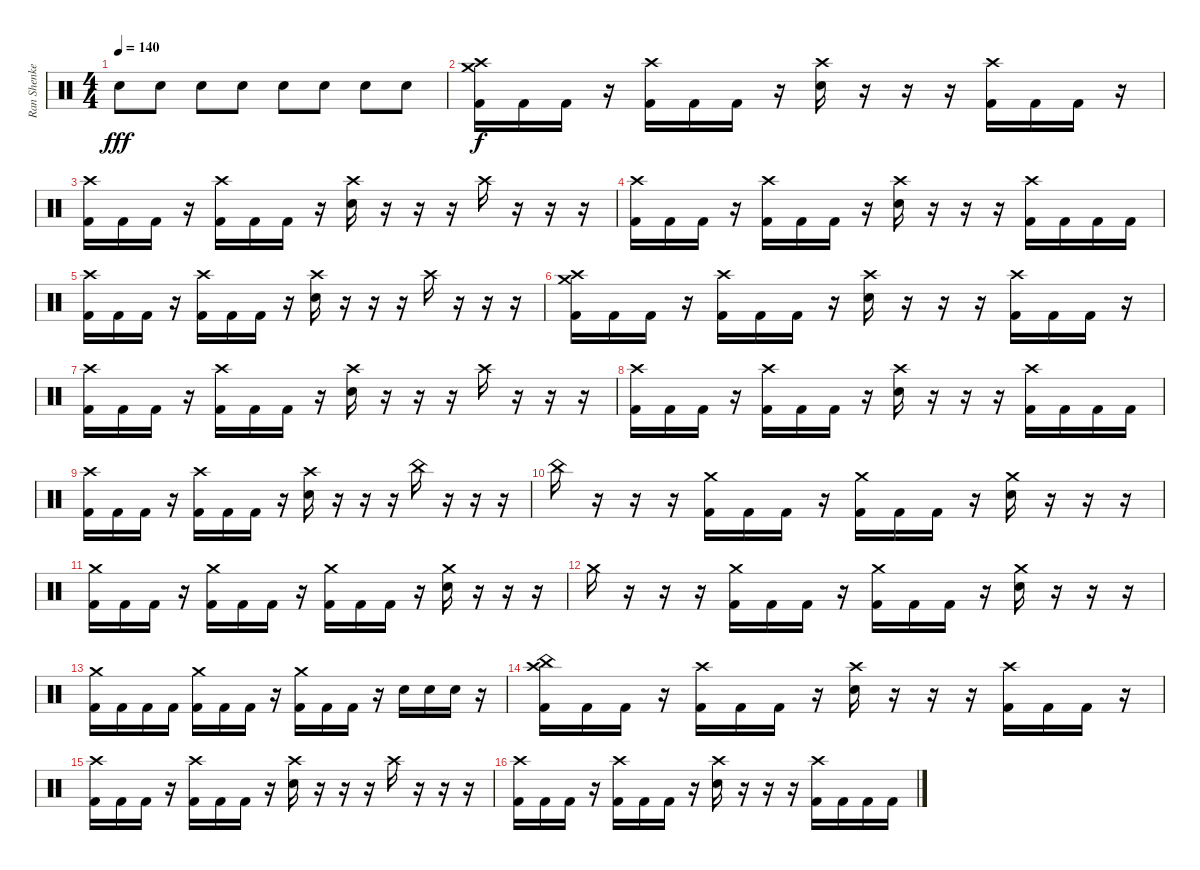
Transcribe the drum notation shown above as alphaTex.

\track ("Ran Shenkerman" "Ran Shenke") {instrument percussion}
\staff {score}
\articulation defaults
\ts (4 4)
\tempo 140
\clef neutral
\ks c "Snare (hit) 2".8{dy fff} "Snare (hit) 2".8 "Snare (hit) 2".8 "Snare (hit) 2".8 "Snare (hit) 2".8 "Snare (hit) 2".8 "Snare (hit) 2".8 "Snare (hit) 2".8
|
("Crash high (hit)" "Crash medium (hit)" "Kick (hit) 2").16{dy f} "Kick (hit) 2".16 "Kick (hit) 2".16 r.16 ("Crash high (hit)" "Kick (hit) 2").16 "Kick (hit) 2".16 "Kick (hit) 2".16 r.16 ("Crash high (hit)" "Snare (hit) 2").16 r.16 r.16 r.16 ("Crash high (hit)" "Kick (hit) 2").16 "Kick (hit) 2".16 "Kick (hit) 2".16 r.16 |
("Crash high (hit)" "Kick (hit) 2").16 "Kick (hit) 2".16 "Kick (hit) 2".16 r.16 ("Crash high (hit)" "Kick (hit) 2").16 "Kick (hit) 2".16 "Kick (hit) 2".16 r.16 ("Crash high (hit)" "Snare (hit) 2").16 r.16 r.16 r.16 "Crash high (hit)".16 r.16 r.16 r.16 |
("Crash high (hit)" "Kick (hit) 2").16 "Kick (hit) 2".16 "Kick (hit) 2".16 r.16 ("Crash high (hit)" "Kick (hit) 2").16 "Kick (hit) 2".16 "Kick (hit) 2".16 r.16 ("Crash high (hit)" "Snare (hit) 2").16 r.16 r.16 r.16 ("Crash high (hit)" "Kick (hit) 2").16 "Kick (hit) 2".16 "Kick (hit) 2".16 "Kick (hit) 2".16 |
("Crash high (hit)" "Kick (hit) 2").16 "Kick (hit) 2".16 "Kick (hit) 2".16 r.16 ("Crash high (hit)" "Kick (hit) 2").16 "Kick (hit) 2".16 "Kick (hit) 2".16 r.16 ("Crash high (hit)" "Snare (hit) 2").16 r.16 r.16 r.16 "Crash high (hit)".16 r.16 r.16 r.16 |
("Crash high (hit)" "Crash medium (hit)" "Kick (hit) 2").16 "Kick (hit) 2".16 "Kick (hit) 2".16 r.16 ("Crash high (hit)" "Kick (hit) 2").16 "Kick (hit) 2".16 "Kick (hit) 2".16 r.16 ("Crash high (hit)" "Snare (hit) 2").16 r.16 r.16 r.16 ("Crash high (hit)" "Kick (hit) 2").16 "Kick (hit) 2".16 "Kick (hit) 2".16 r.16 |
("Crash high (hit)" "Kick (hit) 2").16 "Kick (hit) 2".16 "Kick (hit) 2".16 r.16 ("Crash high (hit)" "Kick (hit) 2").16 "Kick (hit) 2".16 "Kick (hit) 2".16 r.16 ("Crash high (hit)" "Snare (hit) 2").16 r.16 r.16 r.16 "Crash high (hit)".16 r.16 r.16 r.16 |
("Crash high (hit)" "Kick (hit) 2").16 "Kick (hit) 2".16 "Kick (hit) 2".16 r.16 ("Crash high (hit)" "Kick (hit) 2").16 "Kick (hit) 2".16 "Kick (hit) 2".16 r.16 ("Crash high (hit)" "Snare (hit) 2").16 r.16 r.16 r.16 ("Crash high (hit)" "Kick (hit) 2").16 "Kick (hit) 2".16 "Kick (hit) 2".16 "Kick (hit) 2".16 |
("Crash high (hit)" "Kick (hit) 2").16 "Kick (hit) 2".16 "Kick (hit) 2".16 r.16 ("Crash high (hit)" "Kick (hit) 2").16 "Kick (hit) 2".16 "Kick (hit) 2".16 r.16 ("Crash high (hit)" "Snare (hit) 2").16 r.16 r.16 r.16 "China (hit)".16 r.16 r.16 r.16 |
"China (hit)".16 r.16 r.16 r.16 ("Crash medium (hit)" "Kick (hit) 2").16 "Kick (hit) 2".16 "Kick (hit) 2".16 r.16 ("Crash medium (hit)" "Kick (hit) 2").16 "Kick (hit) 2".16 "Kick (hit) 2".16 r.16 ("Crash medium (hit)" "Snare (hit) 2").16 r.16 r.16 r.16 |
("Crash medium (hit)" "Kick (hit) 2").16 "Kick (hit) 2".16 "Kick (hit) 2".16 r.16 ("Crash medium (hit)" "Kick (hit) 2").16 "Kick (hit) 2".16 "Kick (hit) 2".16 r.16 ("Crash medium (hit)" "Kick (hit) 2").16 "Kick (hit) 2".16 "Kick (hit) 2".16 r.16 ("Crash medium (hit)" "Snare (hit) 2").16 r.16 r.16 r.16 |
"Crash medium (hit)".16 r.16 r.16 r.16 ("Crash medium (hit)" "Kick (hit) 2").16 "Kick (hit) 2".16 "Kick (hit) 2".16 r.16 ("Crash medium (hit)" "Kick (hit) 2").16 "Kick (hit) 2".16 "Kick (hit) 2".16 r.16 ("Crash medium (hit)" "Snare (hit) 2").16 r.16 r.16 r.16 |
("Crash medium (hit)" "Kick (hit) 2").16 "Kick (hit) 2".16 "Kick (hit) 2".16 "Kick (hit) 2".16 ("Crash medium (hit)" "Kick (hit) 2").16 "Kick (hit) 2".16 "Kick (hit) 2".16 r.16 ("Crash medium (hit)" "Kick (hit) 2").16 "Kick (hit) 2".16 "Kick (hit) 2".16 r.16 "Snare (hit) 2".16 "Snare (hit) 2".16 "Snare (hit) 2".16 r.16 |
("Crash high (hit)" "China (hit)" "Kick (hit) 2").16 "Kick (hit) 2".16 "Kick (hit) 2".16 r.16 ("Crash high (hit)" "Kick (hit) 2").16 "Kick (hit) 2".16 "Kick (hit) 2".16 r.16 ("Crash high (hit)" "Snare (hit) 2").16 r.16 r.16 r.16 ("Crash high (hit)" "Kick (hit) 2").16 "Kick (hit) 2".16 "Kick (hit) 2".16 r.16 |
("Crash high (hit)" "Kick (hit) 2").16 "Kick (hit) 2".16 "Kick (hit) 2".16 r.16 ("Crash high (hit)" "Kick (hit) 2").16 "Kick (hit) 2".16 "Kick (hit) 2".16 r.16 ("Crash high (hit)" "Snare (hit) 2").16 r.16 r.16 r.16 "Crash high (hit)".16 r.16 r.16 r.16 |
("Crash high (hit)" "Kick (hit) 2").16 "Kick (hit) 2".16 "Kick (hit) 2".16 r.16 ("Crash high (hit)" "Kick (hit) 2").16 "Kick (hit) 2".16 "Kick (hit) 2".16 r.16 ("Crash high (hit)" "Snare (hit) 2").16 r.16 r.16 r.16 ("Crash high (hit)" "Kick (hit) 2").16 "Kick (hit) 2".16 "Kick (hit) 2".16 "Kick (hit) 2".16
